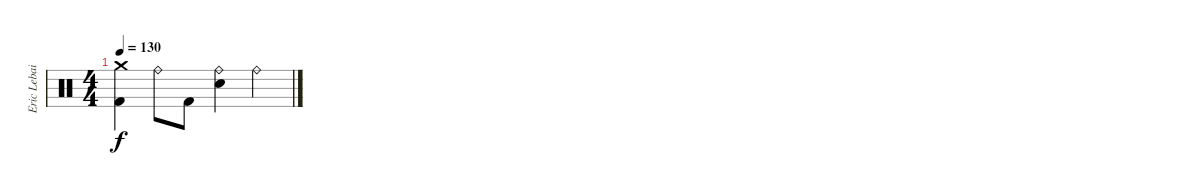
\track ("Eric Lebailly" "Eric Lebai") {instrument percussion}
\staff {score}
\articulation defaults
\ts (4 4)
\tempo 130
\clef neutral
\ks c
("Crash medium (hit)" "Kick (hit) 2").4{dy f volume 0} "Ride (bell)".8 "Kick (hit) 2".8 ("Ride (bell)" "Electric Snare (hit)").4 "Ride (bell)".4
